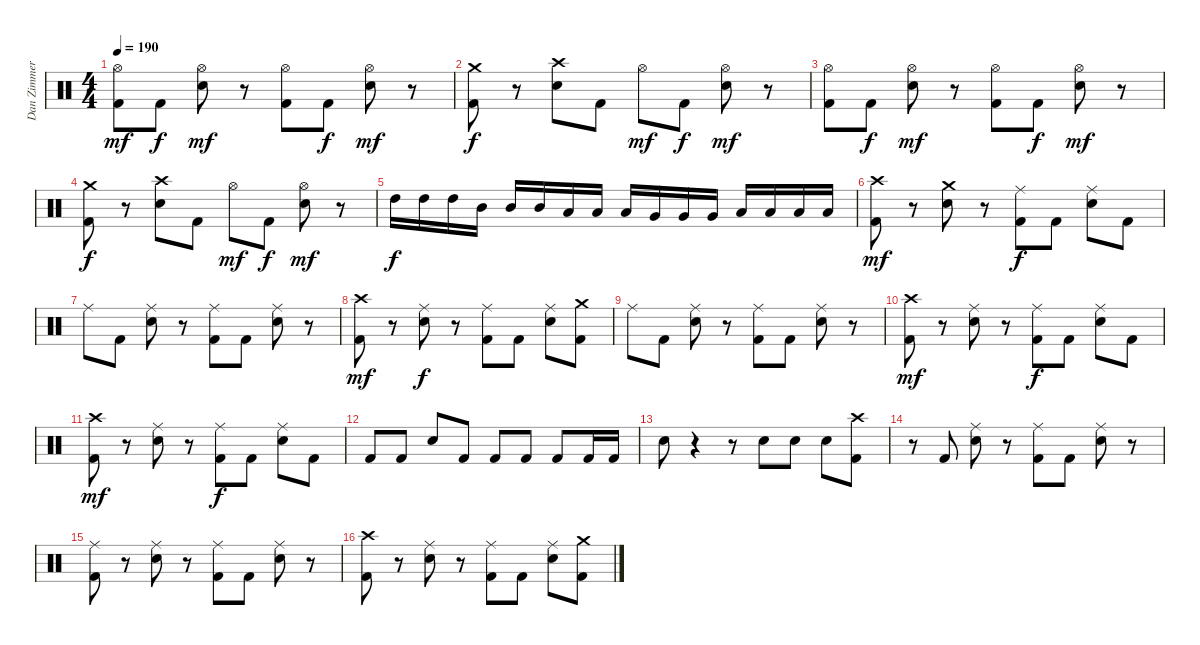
\track ("Dan Zimmermann" "Dan Zimmer") {instrument percussion}
\staff {score}
\articulation defaults
\ts (4 4)
\tempo 190
\clef neutral
\ks c
("Hi-Hat (open)" "Kick (hit) 2").8{dy mf} "Kick (hit) 2".8{dy f} ("Hi-Hat (open)" "Electric Snare (hit)").8{dy mf} r.8 ("Hi-Hat (open)" "Kick (hit) 2").8 "Kick (hit) 2".8{dy f} ("Hi-Hat (open)" "Electric Snare (hit)").8{dy mf} r.8 |
("Crash medium (hit)" "Kick (hit) 2").8{dy f} r.8 ("Crash high (hit)" "Electric Snare (hit)").8 "Kick (hit) 2".8 "Hi-Hat (open)".8{dy mf} "Kick (hit) 2".8{dy f} ("Hi-Hat (open)" "Electric Snare (hit)").8{dy mf} r.8 |
("Hi-Hat (open)" "Kick (hit) 2").8 "Kick (hit) 2".8{dy f} ("Hi-Hat (open)" "Electric Snare (hit)").8{dy mf} r.8 ("Hi-Hat (open)" "Kick (hit) 2").8 "Kick (hit) 2".8{dy f} ("Hi-Hat (open)" "Electric Snare (hit)").8{dy mf} r.8 |
("Crash medium (hit)" "Kick (hit) 2").8{dy f} r.8 ("Crash high (hit)" "Electric Snare (hit)").8 "Kick (hit) 2".8 "Hi-Hat (open)".8{dy mf} "Kick (hit) 2".8{dy f} ("Hi-Hat (open)" "Electric Snare (hit)").8{dy mf} r.8 |
"High Tom (hit)".16{dy f} "High Tom (hit)".16 "High Tom (hit)".16 "Mid Tom (hit)".16 "Mid Tom (hit)".16 "Mid Tom (hit)".16 "Low Tom (hit)".16 "Low Tom (hit)".16 "Low Tom (hit)".16 "Very Low Tom (hit)".16 "Very Low Tom (hit)".16 "Very Low Tom (hit)".16 "Low Floor Tom (hit)".16 "Low Floor Tom (hit)".16 "Low Floor Tom (hit)".16 "Low Floor Tom (hit)".16 |
("Crash high (hit)" "Kick (hit) 2").8{dy mf} r.8 ("Crash medium (hit)" "Electric Snare (hit)").8 r.8 ("Ride (middle)" "Kick (hit) 2").8{dy f} "Kick (hit) 2".8 ("Ride (middle)" "Electric Snare (hit)").8 "Kick (hit) 2".8 |
"Ride (middle)".8 "Kick (hit) 2".8 ("Ride (middle)" "Electric Snare (hit)").8 r.8 ("Ride (middle)" "Kick (hit) 2").8 "Kick (hit) 2".8 ("Ride (middle)" "Electric Snare (hit)").8 r.8 |
("Crash high (hit)" "Kick (hit) 2").8{dy mf} r.8 ("Ride (middle)" "Electric Snare (hit)").8{dy f} r.8 ("Ride (middle)" "Kick (hit) 2").8 "Kick (hit) 2".8 ("Ride (middle)" "Electric Snare (hit)").8 ("Crash medium (hit)" "Kick (hit) 2").8 |
"Ride (middle)".8 "Kick (hit) 2".8 ("Ride (middle)" "Electric Snare (hit)").8 r.8 ("Ride (middle)" "Kick (hit) 2").8 "Kick (hit) 2".8 ("Ride (middle)" "Electric Snare (hit)").8 r.8 |
("Crash high (hit)" "Kick (hit) 2").8{dy mf} r.8 ("Ride (middle)" "Electric Snare (hit)").8 r.8 ("Ride (middle)" "Kick (hit) 2").8{dy f} "Kick (hit) 2".8 ("Ride (middle)" "Electric Snare (hit)").8 "Kick (hit) 2".8 |
("Crash high (hit)" "Kick (hit) 2").8{dy mf} r.8 ("Ride (middle)" "Electric Snare (hit)").8 r.8 ("Ride (middle)" "Kick (hit) 2").8{dy f} "Kick (hit) 2".8 ("Ride (middle)" "Electric Snare (hit)").8 "Kick (hit) 2".8 |
"Kick (hit) 2".8 "Kick (hit) 2".8 "Electric Snare (hit)".8 "Kick (hit) 2".8 "Kick (hit) 2".8 "Kick (hit) 2".8 "Kick (hit) 2".8 "Kick (hit) 2".16 "Kick (hit) 2".16 |
"Electric Snare (hit)".8 r.4 r.8 "Electric Snare (hit)".8 "Electric Snare (hit)".8 "Electric Snare (hit)".8 ("Crash high (hit)" "Kick (hit) 2").8 |
r.8 "Kick (hit) 2".8 ("Ride (middle)" "Electric Snare (hit)").8 r.8 ("Ride (middle)" "Kick (hit) 2").8 "Kick (hit) 2".8 ("Ride (middle)" "Electric Snare (hit)").8 r.8 |
("Ride (middle)" "Kick (hit) 2").8 r.8 ("Ride (middle)" "Electric Snare (hit)").8 r.8 ("Ride (middle)" "Kick (hit) 2").8 "Kick (hit) 2".8 ("Ride (middle)" "Electric Snare (hit)").8 r.8 |
("Crash high (hit)" "Kick (hit) 2").8 r.8 ("Ride (middle)" "Electric Snare (hit)").8 r.8 ("Ride (middle)" "Kick (hit) 2").8 "Kick (hit) 2".8 ("Ride (middle)" "Electric Snare (hit)").8 ("Crash medium (hit)" "Kick (hit) 2").8
